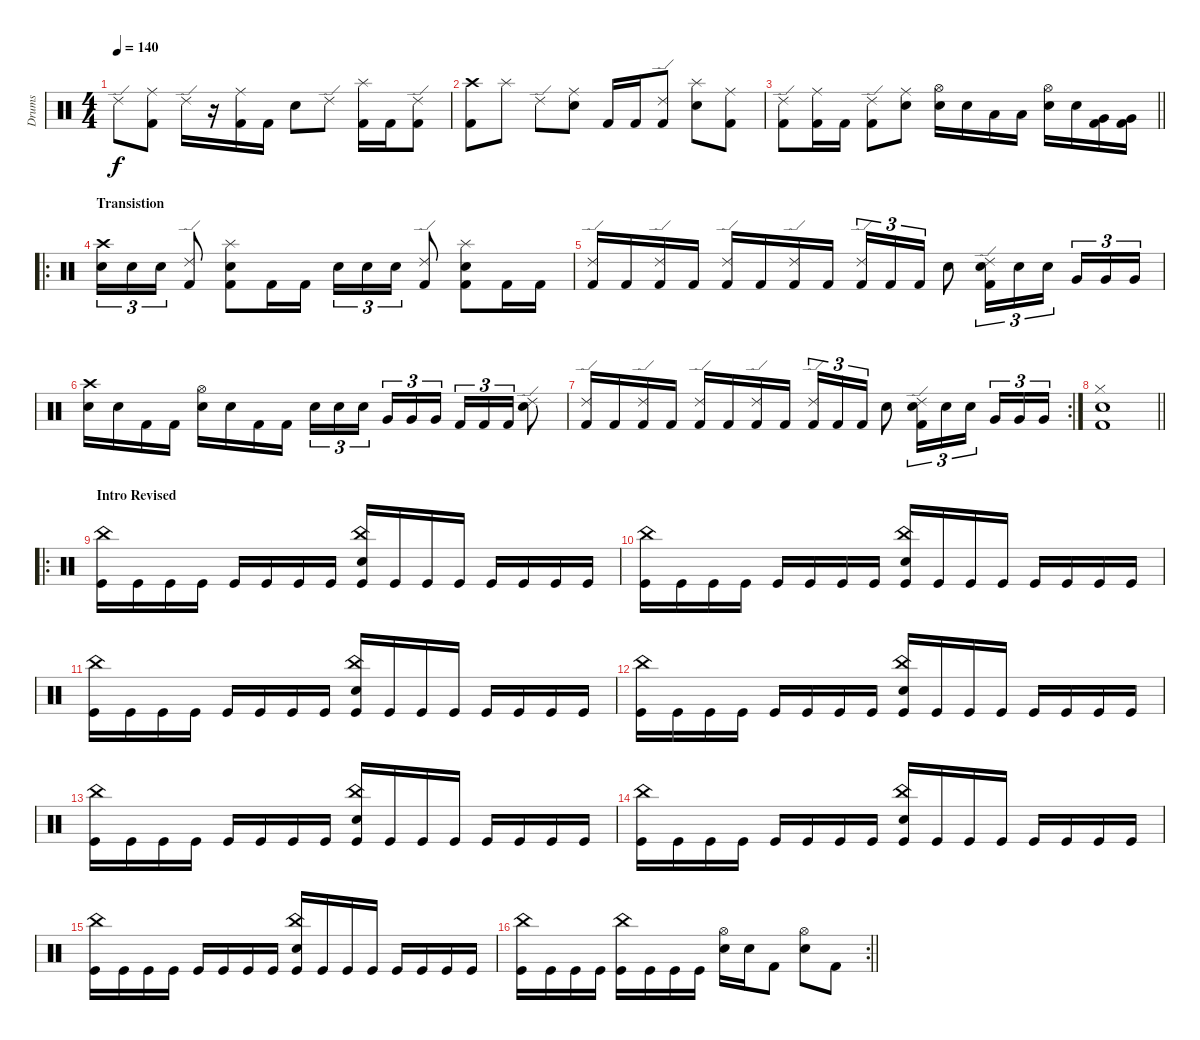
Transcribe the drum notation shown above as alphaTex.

\track ("Drums" "Drums") {instrument percussion}
\staff {score}
\articulation defaults
\ts (4 4)
\tempo 140
\clef neutral
\ks c "Ride (edge) 2".8{dy f}
("Ride (middle)" "Kick (hit) 2").8 "Ride (edge) 2".16 r.16 ("Ride (middle)" "Kick (hit) 2").16 "Kick (hit) 2".16 "Snare (hit) 2".8 "Ride (edge) 2".8 ("Splash (hit)" "Kick (hit) 2").16 "Kick (hit) 2".16 ("Ride (edge) 2" "Kick (hit) 2").8 |
("Crash high (hit)" "Kick (hit) 2").8 "Splash (hit)".8 "Ride (edge) 2".8 ("Ride (middle)" "Snare (hit) 2").8 "Kick (hit) 2".16 "Kick (hit) 2".16 ("Ride (edge) 2" "Kick (hit) 2").8 ("Splash (hit)" "Snare (hit) 2").8 ("Ride (middle)" "Kick (hit) 2").8 |
\barLineRight lightlight
("Ride (edge) 2" "Kick (hit) 2").8 ("Ride (middle)" "Kick (hit) 2").16 "Kick (hit) 2".16 ("Ride (edge) 2" "Kick (hit) 2").8 ("Ride (middle)" "Snare (hit) 2").8 ("Hi-Hat (open)" "Snare (hit) 2").16 "Snare (hit) 2".16 "Low Tom (hit)".16 "Low Tom (hit)".16 ("Hi-Hat (open)" "Snare (hit) 2").16 "Snare (hit) 2".16 ("Very Low Tom (hit)" "Kick (hit) 2").16 ("Very Low Tom (hit)" "Kick (hit) 2").16 |
\ro
\section ("" "Transistion")
("Crash high (hit)" "Snare (hit) 2").16{tu (3 2)} "Snare (hit) 2".16{tu (3 2)} "Snare (hit) 2".16{tu (3 2)} ("Ride (edge) 2" "Kick (hit) 2").8 ("Splash (hit)" "Snare (hit) 2" "Kick (hit) 2").8 "Kick (hit) 2".16 "Kick (hit) 2".16 "Snare (hit) 2".16{tu (3 2)} "Snare (hit) 2".16{tu (3 2)} "Snare (hit) 2".16{tu (3 2)} ("Ride (edge) 2" "Kick (hit) 2").8 ("Splash (hit)" "Snare (hit) 2" "Kick (hit) 2").8 "Kick (hit) 2".16 "Kick (hit) 2".16 |
("Ride (edge) 2" "Kick (hit) 2").16 "Kick (hit) 2".16 ("Ride (edge) 2" "Kick (hit) 2").16 "Kick (hit) 2".16 ("Ride (edge) 2" "Kick (hit) 2").16 "Kick (hit) 2".16 ("Ride (edge) 2" "Kick (hit) 2").16 "Kick (hit) 2".16 ("Ride (edge) 2" "Kick (hit) 2").16{tu (3 2)} "Kick (hit) 2".16{tu (3 2)} "Kick (hit) 2".16{tu (3 2)} "Snare (hit) 2".8 ("Ride (edge) 2" "Snare (hit) 2" "Kick (hit) 2").16{tu (3 2)} "Snare (hit) 2".16{tu (3 2)} "Snare (hit) 2".16{tu (3 2) beam splitsecondary} "Very Low Tom (hit)".16{tu (3 2)} "Very Low Tom (hit)".16{tu (3 2)} "Very Low Tom (hit)".16{tu (3 2)} |
("Crash high (hit)" "Snare (hit) 2").16 "Snare (hit) 2".16 "Kick (hit) 2".16 "Kick (hit) 2".16 ("Hi-Hat (open)" "Snare (hit) 2").16 "Snare (hit) 2".16 "Kick (hit) 2".16 "Kick (hit) 2".16 "Snare (hit) 2".16{tu (3 2)} "Snare (hit) 2".16{tu (3 2)} "Snare (hit) 2".16{tu (3 2) beam splitsecondary} "Very Low Tom (hit)".16{tu (3 2)} "Very Low Tom (hit)".16{tu (3 2)} "Very Low Tom (hit)".16{tu (3 2)} "Kick (hit) 2".16{tu (3 2)} "Kick (hit) 2".16{tu (3 2)} "Kick (hit) 2".16{tu (3 2)} ("Ride (edge) 2" "Snare (hit) 2").8 |
\rc 2
("Ride (edge) 2" "Kick (hit) 2").16 "Kick (hit) 2".16 ("Ride (edge) 2" "Kick (hit) 2").16 "Kick (hit) 2".16 ("Ride (edge) 2" "Kick (hit) 2").16 "Kick (hit) 2".16 ("Ride (edge) 2" "Kick (hit) 2").16 "Kick (hit) 2".16 ("Ride (edge) 2" "Kick (hit) 2").16{tu (3 2)} "Kick (hit) 2".16{tu (3 2)} "Kick (hit) 2".16{tu (3 2)} "Snare (hit) 2".8 ("Ride (edge) 2" "Snare (hit) 2" "Kick (hit) 2").16{tu (3 2)} "Snare (hit) 2".16{tu (3 2)} "Snare (hit) 2".16{tu (3 2) beam splitsecondary} "Very Low Tom (hit)".16{tu (3 2)} "Very Low Tom (hit)".16{tu (3 2)} "Very Low Tom (hit)".16{tu (3 2)} |
\barLineRight lightlight
("Hi-Hat (closed)" "Snare (hit) 2" "Kick (hit) 2").1 |
\ro
\section ("" "Intro Revised")
("China (hit)" "Kick (hit)").16 "Kick (hit)".16 "Kick (hit)".16 "Kick (hit)".16 "Kick (hit)".16 "Kick (hit)".16 "Kick (hit)".16 "Kick (hit)".16 ("China (hit)" "Snare (hit) 2" "Kick (hit)").16 "Kick (hit)".16 "Kick (hit)".16 "Kick (hit)".16 "Kick (hit)".16 "Kick (hit)".16 "Kick (hit)".16 "Kick (hit)".16 |
("China (hit)" "Kick (hit)").16 "Kick (hit)".16 "Kick (hit)".16 "Kick (hit)".16 "Kick (hit)".16 "Kick (hit)".16 "Kick (hit)".16 "Kick (hit)".16 ("China (hit)" "Snare (hit) 2" "Kick (hit)").16 "Kick (hit)".16 "Kick (hit)".16 "Kick (hit)".16 "Kick (hit)".16 "Kick (hit)".16 "Kick (hit)".16 "Kick (hit)".16 |
("China (hit)" "Kick (hit)").16 "Kick (hit)".16 "Kick (hit)".16 "Kick (hit)".16 "Kick (hit)".16 "Kick (hit)".16 "Kick (hit)".16 "Kick (hit)".16 ("China (hit)" "Snare (hit) 2" "Kick (hit)").16 "Kick (hit)".16 "Kick (hit)".16 "Kick (hit)".16 "Kick (hit)".16 "Kick (hit)".16 "Kick (hit)".16 "Kick (hit)".16 |
("China (hit)" "Kick (hit)").16 "Kick (hit)".16 "Kick (hit)".16 "Kick (hit)".16 "Kick (hit)".16 "Kick (hit)".16 "Kick (hit)".16 "Kick (hit)".16 ("China (hit)" "Snare (hit) 2" "Kick (hit)").16 "Kick (hit)".16 "Kick (hit)".16 "Kick (hit)".16 "Kick (hit)".16 "Kick (hit)".16 "Kick (hit)".16 "Kick (hit)".16 |
("China (hit)" "Kick (hit)").16 "Kick (hit)".16 "Kick (hit)".16 "Kick (hit)".16 "Kick (hit)".16 "Kick (hit)".16 "Kick (hit)".16 "Kick (hit)".16 ("China (hit)" "Snare (hit) 2" "Kick (hit)").16 "Kick (hit)".16 "Kick (hit)".16 "Kick (hit)".16 "Kick (hit)".16 "Kick (hit)".16 "Kick (hit)".16 "Kick (hit)".16 |
("China (hit)" "Kick (hit)").16 "Kick (hit)".16 "Kick (hit)".16 "Kick (hit)".16 "Kick (hit)".16 "Kick (hit)".16 "Kick (hit)".16 "Kick (hit)".16 ("China (hit)" "Snare (hit) 2" "Kick (hit)").16 "Kick (hit)".16 "Kick (hit)".16 "Kick (hit)".16 "Kick (hit)".16 "Kick (hit)".16 "Kick (hit)".16 "Kick (hit)".16 |
("China (hit)" "Kick (hit)").16 "Kick (hit)".16 "Kick (hit)".16 "Kick (hit)".16 "Kick (hit)".16 "Kick (hit)".16 "Kick (hit)".16 "Kick (hit)".16 ("China (hit)" "Snare (hit) 2" "Kick (hit)").16 "Kick (hit)".16 "Kick (hit)".16 "Kick (hit)".16 "Kick (hit)".16 "Kick (hit)".16 "Kick (hit)".16 "Kick (hit)".16 |
\rc 2
\barLineRight lightlight
("China (hit)" "Kick (hit)").16 "Kick (hit)".16 "Kick (hit)".16 "Kick (hit)".16 ("China (hit)" "Kick (hit)").16 "Kick (hit)".16 "Kick (hit)".16 "Kick (hit)".16 ("Hi-Hat (open)" "Snare (hit) 2").16 "Snare (hit) 2".16 "Kick (hit) 2".8 ("Hi-Hat (open)" "Snare (hit) 2").8 "Kick (hit) 2".8
